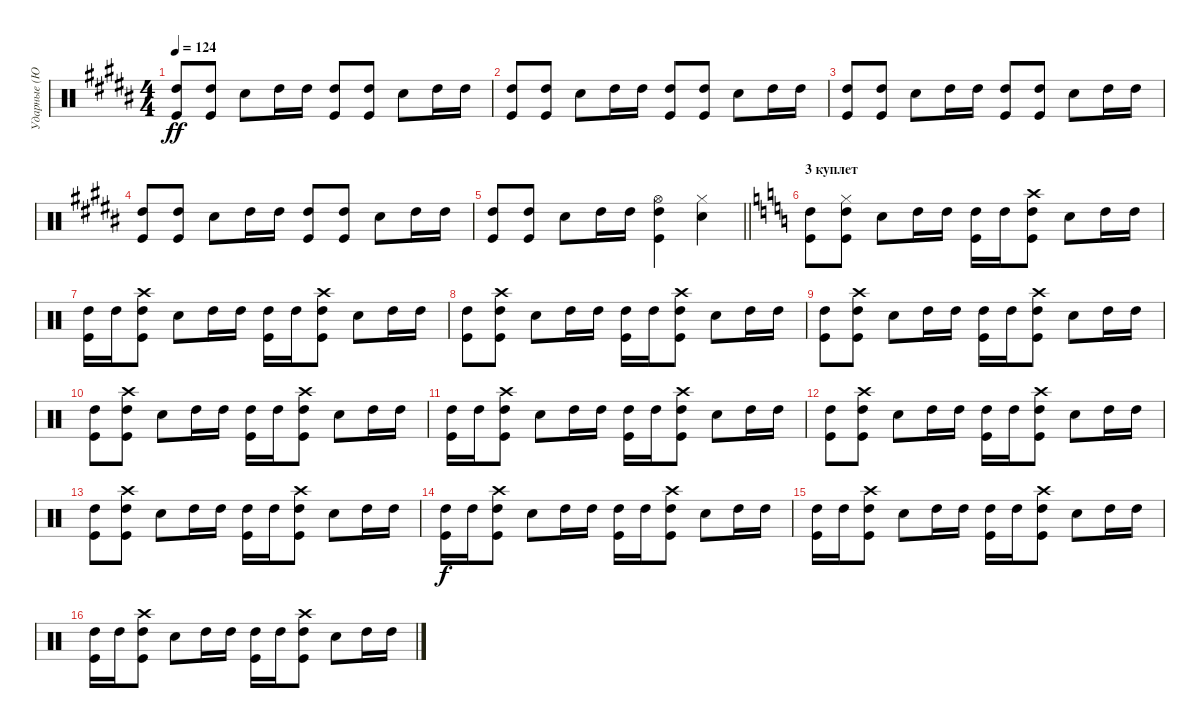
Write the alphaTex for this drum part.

\track ("Ударные (Ю.Борзов)" "Ударные (Ю") {instrument percussion}
\staff {score}
\articulation defaults
\ts (4 4)
\tempo 124
\clef neutral
\ks g#minor
("High Tom (hit)" "Kick (hit)").8{dy ff} ("High Tom (hit)" "Kick (hit)").8 "Snare (hit) 2".8 "High Tom (hit)".16 "High Tom (hit)".16 ("High Tom (hit)" "Kick (hit)").8 ("High Tom (hit)" "Kick (hit)").8 "Snare (hit) 2".8 "High Tom (hit)".16 "High Tom (hit)".16 |
("High Tom (hit)" "Kick (hit)").8 ("High Tom (hit)" "Kick (hit)").8 "Snare (hit) 2".8 "High Tom (hit)".16 "High Tom (hit)".16 ("High Tom (hit)" "Kick (hit)").8 ("High Tom (hit)" "Kick (hit)").8 "Snare (hit) 2".8 "High Tom (hit)".16 "High Tom (hit)".16 |
("High Tom (hit)" "Kick (hit)").8 ("High Tom (hit)" "Kick (hit)").8 "Snare (hit) 2".8 "High Tom (hit)".16 "High Tom (hit)".16 ("High Tom (hit)" "Kick (hit)").8 ("High Tom (hit)" "Kick (hit)").8 "Snare (hit) 2".8 "High Tom (hit)".16 "High Tom (hit)".16 |
("High Tom (hit)" "Kick (hit)").8 ("High Tom (hit)" "Kick (hit)").8 "Snare (hit) 2".8 "High Tom (hit)".16 "High Tom (hit)".16 ("High Tom (hit)" "Kick (hit)").8 ("High Tom (hit)" "Kick (hit)").8 "Snare (hit) 2".8 "High Tom (hit)".16 "High Tom (hit)".16 |
\barLineRight lightlight
("High Tom (hit)" "Kick (hit)").8 ("High Tom (hit)" "Kick (hit)").8 "Snare (hit) 2".8 "High Tom (hit)".16 "High Tom (hit)".16 ("Hi-Hat (open)" "High Tom (hit)" "Kick (hit)").4 ("Hi-Hat (closed)" "Snare (hit) 2").4 |
\section ("" "3 куплет")
\ks aminor
("High Tom (hit)" "Kick (hit)").8 ("Hi-Hat (closed)" "High Tom (hit)" "Kick (hit)").8 "Snare (hit) 2".8 "High Tom (hit)".16 "High Tom (hit)".16 ("High Tom (hit)" "Kick (hit)").16 "High Tom (hit)".16 ("Crash high (hit)" "High Tom (hit)" "Kick (hit)").8 "Snare (hit) 2".8 "High Tom (hit)".16 "High Tom (hit)".16 |
("High Tom (hit)" "Kick (hit)").16 "High Tom (hit)".16 ("Crash high (hit)" "High Tom (hit)" "Kick (hit)").8 "Snare (hit) 2".8 "High Tom (hit)".16 "High Tom (hit)".16 ("High Tom (hit)" "Kick (hit)").16 "High Tom (hit)".16 ("Crash high (hit)" "High Tom (hit)" "Kick (hit)").8 "Snare (hit) 2".8 "High Tom (hit)".16 "High Tom (hit)".16 |
("High Tom (hit)" "Kick (hit)").8 ("Crash high (hit)" "High Tom (hit)" "Kick (hit)").8 "Snare (hit) 2".8 "High Tom (hit)".16 "High Tom (hit)".16 ("High Tom (hit)" "Kick (hit)").16 "High Tom (hit)".16 ("Crash high (hit)" "High Tom (hit)" "Kick (hit)").8 "Snare (hit) 2".8 "High Tom (hit)".16 "High Tom (hit)".16 |
("High Tom (hit)" "Kick (hit)").8 ("Crash high (hit)" "High Tom (hit)" "Kick (hit)").8 "Snare (hit) 2".8 "High Tom (hit)".16 "High Tom (hit)".16 ("High Tom (hit)" "Kick (hit)").16 "High Tom (hit)".16 ("Crash high (hit)" "High Tom (hit)" "Kick (hit)").8 "Snare (hit) 2".8 "High Tom (hit)".16 "High Tom (hit)".16 |
("High Tom (hit)" "Kick (hit)").8 ("Crash high (hit)" "High Tom (hit)" "Kick (hit)").8 "Snare (hit) 2".8 "High Tom (hit)".16 "High Tom (hit)".16 ("High Tom (hit)" "Kick (hit)").16 "High Tom (hit)".16 ("Crash high (hit)" "High Tom (hit)" "Kick (hit)").8 "Snare (hit) 2".8 "High Tom (hit)".16 "High Tom (hit)".16 |
("High Tom (hit)" "Kick (hit)").16 "High Tom (hit)".16 ("Crash high (hit)" "High Tom (hit)" "Kick (hit)").8 "Snare (hit) 2".8 "High Tom (hit)".16 "High Tom (hit)".16 ("High Tom (hit)" "Kick (hit)").16 "High Tom (hit)".16 ("Crash high (hit)" "High Tom (hit)" "Kick (hit)").8 "Snare (hit) 2".8 "High Tom (hit)".16 "High Tom (hit)".16 |
("High Tom (hit)" "Kick (hit)").8 ("Crash high (hit)" "High Tom (hit)" "Kick (hit)").8 "Snare (hit) 2".8 "High Tom (hit)".16 "High Tom (hit)".16 ("High Tom (hit)" "Kick (hit)").16 "High Tom (hit)".16 ("Crash high (hit)" "High Tom (hit)" "Kick (hit)").8 "Snare (hit) 2".8 "High Tom (hit)".16 "High Tom (hit)".16 |
("High Tom (hit)" "Kick (hit)").8 ("Crash high (hit)" "High Tom (hit)" "Kick (hit)").8 "Snare (hit) 2".8 "High Tom (hit)".16 "High Tom (hit)".16 ("High Tom (hit)" "Kick (hit)").16 "High Tom (hit)".16 ("Crash high (hit)" "High Tom (hit)" "Kick (hit)").8 "Snare (hit) 2".8 "High Tom (hit)".16 "High Tom (hit)".16 |
("High Tom (hit)" "Kick (hit)").16{dy f} "High Tom (hit)".16 ("Crash high (hit)" "High Tom (hit)" "Kick (hit)").8 "Snare (hit) 2".8 "High Tom (hit)".16 "High Tom (hit)".16 ("High Tom (hit)" "Kick (hit)").16 "High Tom (hit)".16 ("Crash high (hit)" "High Tom (hit)" "Kick (hit)").8 "Snare (hit) 2".8 "High Tom (hit)".16 "High Tom (hit)".16 |
("High Tom (hit)" "Kick (hit)").16 "High Tom (hit)".16 ("Crash high (hit)" "High Tom (hit)" "Kick (hit)").8 "Snare (hit) 2".8 "High Tom (hit)".16 "High Tom (hit)".16 ("High Tom (hit)" "Kick (hit)").16 "High Tom (hit)".16 ("Crash high (hit)" "High Tom (hit)" "Kick (hit)").8 "Snare (hit) 2".8 "High Tom (hit)".16 "High Tom (hit)".16 |
("High Tom (hit)" "Kick (hit)").16 "High Tom (hit)".16 ("Crash high (hit)" "High Tom (hit)" "Kick (hit)").8 "Snare (hit) 2".8 "High Tom (hit)".16 "High Tom (hit)".16 ("High Tom (hit)" "Kick (hit)").16 "High Tom (hit)".16 ("Crash high (hit)" "High Tom (hit)" "Kick (hit)").8 "Snare (hit) 2".8 "High Tom (hit)".16 "High Tom (hit)".16
